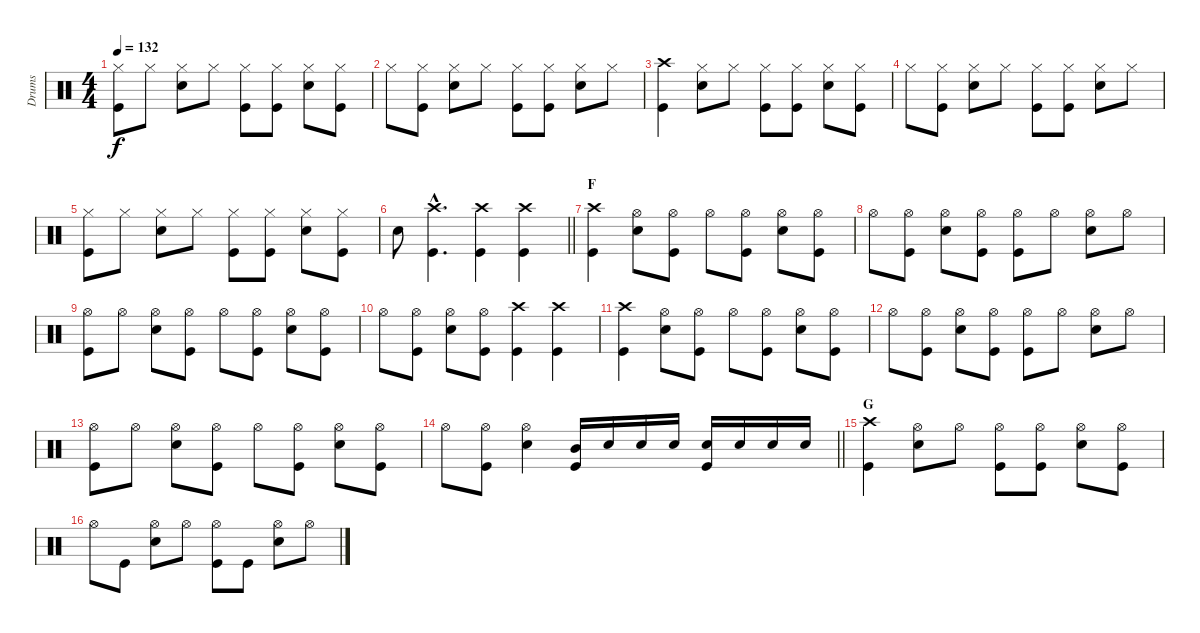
\track ("Drums" "Drums") {instrument percussion}
\staff {score}
\articulation defaults
\ts (4 4)
\tempo 132
\clef neutral
\ks c
("Hi-Hat (closed)" "Kick (hit)").8{dy f} "Hi-Hat (closed)".8 ("Hi-Hat (closed)" "Electric Snare (hit)").8 "Hi-Hat (closed)".8 ("Hi-Hat (closed)" "Kick (hit)").8 ("Hi-Hat (closed)" "Kick (hit)").8 ("Hi-Hat (closed)" "Electric Snare (hit)").8 ("Hi-Hat (closed)" "Kick (hit)").8 |
"Hi-Hat (closed)".8 ("Hi-Hat (closed)" "Kick (hit)").8 ("Hi-Hat (closed)" "Electric Snare (hit)").8 "Hi-Hat (closed)".8 ("Hi-Hat (closed)" "Kick (hit)").8 ("Hi-Hat (closed)" "Kick (hit)").8 ("Hi-Hat (closed)" "Electric Snare (hit)").8 "Hi-Hat (closed)".8 |
("Crash high (hit)" "Kick (hit)").4 ("Hi-Hat (closed)" "Electric Snare (hit)").8 "Hi-Hat (closed)".8 ("Hi-Hat (closed)" "Kick (hit)").8 ("Hi-Hat (closed)" "Kick (hit)").8 ("Hi-Hat (closed)" "Electric Snare (hit)").8 ("Hi-Hat (closed)" "Kick (hit)").8 |
"Hi-Hat (closed)".8 ("Hi-Hat (closed)" "Kick (hit)").8 ("Hi-Hat (closed)" "Electric Snare (hit)").8 "Hi-Hat (closed)".8 ("Hi-Hat (closed)" "Kick (hit)").8 ("Hi-Hat (closed)" "Kick (hit)").8 ("Hi-Hat (closed)" "Electric Snare (hit)").8 "Hi-Hat (closed)".8 |
("Hi-Hat (closed)" "Kick (hit)").8 "Hi-Hat (closed)".8 ("Hi-Hat (closed)" "Electric Snare (hit)").8 "Hi-Hat (closed)".8 ("Hi-Hat (closed)" "Kick (hit)").8 ("Hi-Hat (closed)" "Kick (hit)").8 ("Hi-Hat (closed)" "Electric Snare (hit)").8 ("Hi-Hat (closed)" "Kick (hit)").8 |
\barLineRight lightlight "Electric Snare (hit)".8
("Crash high (hit)"{hac} "Kick (hit)"{hac}).4{d} ("Crash high (hit)" "Kick (hit)").4 ("Crash high (hit)" "Kick (hit)").4 |
\section ("" "F")
("Crash high (hit)" "Kick (hit)").4 ("Hi-Hat (open)" "Electric Snare (hit)").8 ("Hi-Hat (open)" "Kick (hit)").8 "Hi-Hat (open)".8 ("Hi-Hat (open)" "Kick (hit)").8 ("Hi-Hat (open)" "Electric Snare (hit)").8 ("Hi-Hat (open)" "Kick (hit)").8 |
"Hi-Hat (open)".8 ("Hi-Hat (open)" "Kick (hit)").8 ("Hi-Hat (open)" "Electric Snare (hit)").8 ("Hi-Hat (open)" "Kick (hit)").8 ("Hi-Hat (open)" "Kick (hit)").8 "Hi-Hat (open)".8 ("Hi-Hat (open)" "Electric Snare (hit)").8 "Hi-Hat (open)".8 |
("Hi-Hat (open)" "Kick (hit)").8 "Hi-Hat (open)".8 ("Hi-Hat (open)" "Electric Snare (hit)").8 ("Hi-Hat (open)" "Kick (hit)").8 "Hi-Hat (open)".8 ("Hi-Hat (open)" "Kick (hit)").8 ("Hi-Hat (open)" "Electric Snare (hit)").8 ("Hi-Hat (open)" "Kick (hit)").8 |
"Hi-Hat (open)".8 ("Hi-Hat (open)" "Kick (hit)").8 ("Hi-Hat (open)" "Electric Snare (hit)").8 ("Hi-Hat (open)" "Kick (hit)").8 ("Crash high (hit)" "Kick (hit)").4 ("Crash high (hit)" "Kick (hit)").4 |
("Crash high (hit)" "Kick (hit)").4 ("Hi-Hat (open)" "Electric Snare (hit)").8 ("Hi-Hat (open)" "Kick (hit)").8 "Hi-Hat (open)".8 ("Hi-Hat (open)" "Kick (hit)").8 ("Hi-Hat (open)" "Electric Snare (hit)").8 ("Hi-Hat (open)" "Kick (hit)").8 |
"Hi-Hat (open)".8 ("Hi-Hat (open)" "Kick (hit)").8 ("Hi-Hat (open)" "Electric Snare (hit)").8 ("Hi-Hat (open)" "Kick (hit)").8 ("Hi-Hat (open)" "Kick (hit)").8 "Hi-Hat (open)".8 ("Hi-Hat (open)" "Electric Snare (hit)").8 "Hi-Hat (open)".8 |
("Hi-Hat (open)" "Kick (hit)").8 "Hi-Hat (open)".8 ("Hi-Hat (open)" "Electric Snare (hit)").8 ("Hi-Hat (open)" "Kick (hit)").8 "Hi-Hat (open)".8 ("Hi-Hat (open)" "Kick (hit)").8 ("Hi-Hat (open)" "Electric Snare (hit)").8 ("Hi-Hat (open)" "Kick (hit)").8 |
\barLineRight lightlight "Hi-Hat (open)".8
("Hi-Hat (open)" "Kick (hit)").8 ("Hi-Hat (open)" "Electric Snare (hit)").4 ("Mid Tom (hit)" "Kick (hit)").16 "Electric Snare (hit)".16 "Electric Snare (hit)".16 "Electric Snare (hit)".16 ("Electric Snare (hit)" "Kick (hit)").16 "Electric Snare (hit)".16 "Electric Snare (hit)".16 "Electric Snare (hit)".16 |
\section ("" "G")
("Crash high (hit)" "Kick (hit)").4 ("Hi-Hat (open)" "Electric Snare (hit)").8 "Hi-Hat (open)".8 ("Hi-Hat (open)" "Kick (hit)").8 ("Hi-Hat (open)" "Kick (hit)").8 ("Hi-Hat (open)" "Electric Snare (hit)").8 ("Hi-Hat (open)" "Kick (hit)").8 |
"Hi-Hat (open)".8 "Kick (hit)".8 ("Hi-Hat (open)" "Electric Snare (hit)").8 "Hi-Hat (open)".8 ("Hi-Hat (open)" "Kick (hit)").8 "Kick (hit)".8 ("Hi-Hat (open)" "Electric Snare (hit)").8 "Hi-Hat (open)".8
